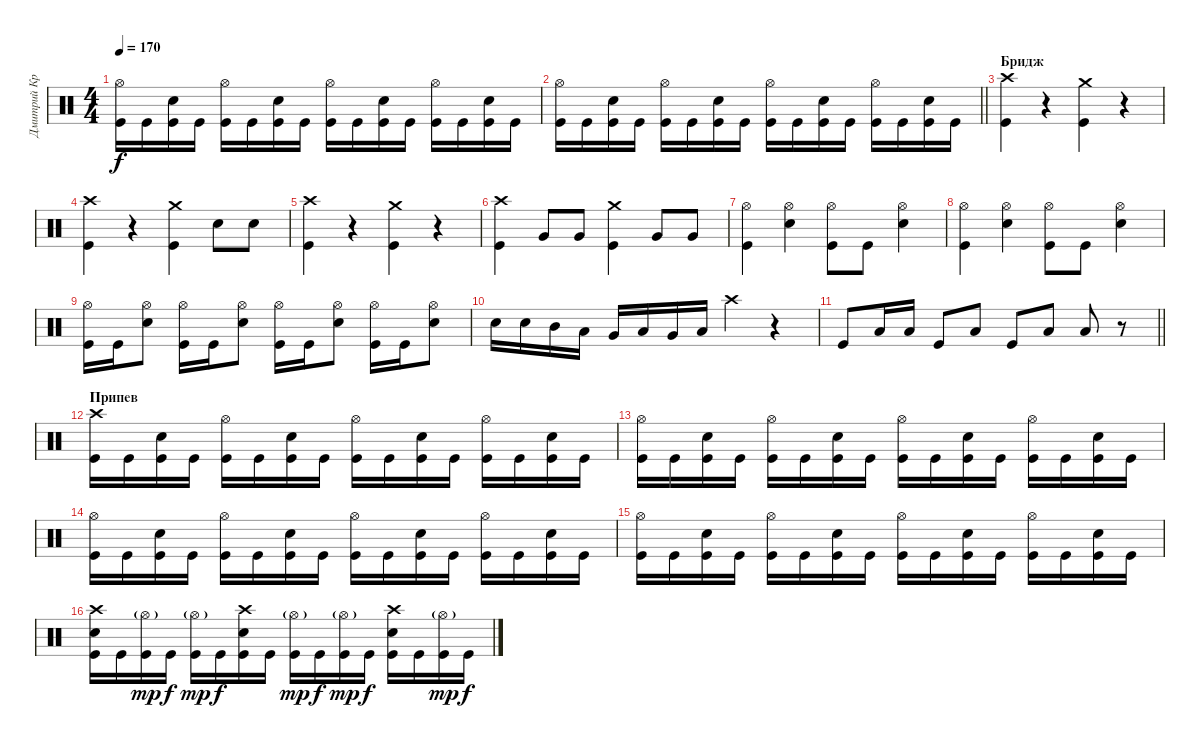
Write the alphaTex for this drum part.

\track ("Дмитрий Кривенков" "Дмитрий Кр") {instrument percussion}
\staff {score}
\articulation defaults
\ts (4 4)
\tempo 170
\clef neutral
\ks c
("Hi-Hat (open)" "Kick (hit)").16{dy f} "Kick (hit)".16 ("Snare (hit) 2" "Kick (hit)").16 "Kick (hit)".16 ("Hi-Hat (open)" "Kick (hit)").16 "Kick (hit)".16 ("Snare (hit) 2" "Kick (hit)").16 "Kick (hit)".16 ("Hi-Hat (open)" "Kick (hit)").16 "Kick (hit)".16 ("Snare (hit) 2" "Kick (hit)").16 "Kick (hit)".16 ("Hi-Hat (open)" "Kick (hit)").16 "Kick (hit)".16 ("Snare (hit) 2" "Kick (hit)").16 "Kick (hit)".16 |
\barLineRight lightlight
("Hi-Hat (open)" "Kick (hit)").16 "Kick (hit)".16 ("Snare (hit) 2" "Kick (hit)").16 "Kick (hit)".16 ("Hi-Hat (open)" "Kick (hit)").16 "Kick (hit)".16 ("Snare (hit) 2" "Kick (hit)").16 "Kick (hit)".16 ("Hi-Hat (open)" "Kick (hit)").16 "Kick (hit)".16 ("Snare (hit) 2" "Kick (hit)").16 "Kick (hit)".16 ("Hi-Hat (open)" "Kick (hit)").16 "Kick (hit)".16 ("Snare (hit) 2" "Kick (hit)").16 "Kick (hit)".16 |
\section ("" "Бридж")
("Crash high (hit)" "Kick (hit)").4 r.4 ("Crash medium (hit)" "Kick (hit)").4 r.4 |
("Crash high (hit)" "Kick (hit)").4 r.4 ("Crash medium (hit)" "Kick (hit)").4 "Snare (hit) 2".8 "Snare (hit) 2".8 |
("Crash high (hit)" "Kick (hit)").4 r.4 ("Crash medium (hit)" "Kick (hit)").4 r.4 |
("Crash high (hit)" "Kick (hit)").4 "Very Low Tom (hit)".8 "Very Low Tom (hit)".8 ("Crash medium (hit)" "Kick (hit)").4 "Very Low Tom (hit)".8 "Very Low Tom (hit)".8 |
("Hi-Hat (open)" "Kick (hit)").4 ("Hi-Hat (open)" "Snare (hit) 2").4 ("Hi-Hat (open)" "Kick (hit)").8 "Kick (hit)".8 ("Hi-Hat (open)" "Snare (hit) 2").4 |
("Hi-Hat (open)" "Kick (hit)").4 ("Hi-Hat (open)" "Snare (hit) 2").4 ("Hi-Hat (open)" "Kick (hit)").8 "Kick (hit)".8 ("Hi-Hat (open)" "Snare (hit) 2").4 |
("Hi-Hat (open)" "Kick (hit)").16 "Kick (hit)".16 ("Hi-Hat (open)" "Snare (hit) 2").8 ("Hi-Hat (open)" "Kick (hit)").16 "Kick (hit)".16 ("Hi-Hat (open)" "Snare (hit) 2").8 ("Hi-Hat (open)" "Kick (hit)").16 "Kick (hit)".16 ("Hi-Hat (open)" "Snare (hit) 2").8 ("Hi-Hat (open)" "Kick (hit)").16 "Kick (hit)".16 ("Hi-Hat (open)" "Snare (hit) 2").8 |
"Snare (hit) 2".16 "Snare (hit) 2".16 "Mid Tom (hit)".16 "Low Tom (hit)".16 "Very Low Tom (hit)".16 "Low Floor Tom (hit)".16 "Very Low Tom (hit)".16 "Low Tom (hit)".16 "Crash high (hit)".4 r.4 |
\barLineRight lightlight "Kick (hit)".8 "Low Tom (hit)".16 "Low Tom (hit)".16 "Kick (hit)".8 "Low Tom (hit)".8 "Kick (hit)".8 "Low Tom (hit)".8 "Low Tom (hit)".8
r.8 |
\section ("" "Припев")
("Crash high (hit)" "Kick (hit)").16 "Kick (hit)".16 ("Snare (hit) 2" "Kick (hit)").16 "Kick (hit)".16 ("Hi-Hat (open)" "Kick (hit)").16 "Kick (hit)".16 ("Snare (hit) 2" "Kick (hit)").16 "Kick (hit)".16 ("Hi-Hat (open)" "Kick (hit)").16 "Kick (hit)".16 ("Snare (hit) 2" "Kick (hit)").16 "Kick (hit)".16 ("Hi-Hat (open)" "Kick (hit)").16 "Kick (hit)".16 ("Snare (hit) 2" "Kick (hit)").16 "Kick (hit)".16 |
("Hi-Hat (open)" "Kick (hit)").16 "Kick (hit)".16 ("Snare (hit) 2" "Kick (hit)").16 "Kick (hit)".16 ("Hi-Hat (open)" "Kick (hit)").16 "Kick (hit)".16 ("Snare (hit) 2" "Kick (hit)").16 "Kick (hit)".16 ("Hi-Hat (open)" "Kick (hit)").16 "Kick (hit)".16 ("Snare (hit) 2" "Kick (hit)").16 "Kick (hit)".16 ("Hi-Hat (open)" "Kick (hit)").16 "Kick (hit)".16 ("Snare (hit) 2" "Kick (hit)").16 "Kick (hit)".16 |
("Hi-Hat (open)" "Kick (hit)").16 "Kick (hit)".16 ("Snare (hit) 2" "Kick (hit)").16 "Kick (hit)".16 ("Hi-Hat (open)" "Kick (hit)").16 "Kick (hit)".16 ("Snare (hit) 2" "Kick (hit)").16 "Kick (hit)".16 ("Hi-Hat (open)" "Kick (hit)").16 "Kick (hit)".16 ("Snare (hit) 2" "Kick (hit)").16 "Kick (hit)".16 ("Hi-Hat (open)" "Kick (hit)").16 "Kick (hit)".16 ("Snare (hit) 2" "Kick (hit)").16 "Kick (hit)".16 |
("Hi-Hat (open)" "Kick (hit)").16 "Kick (hit)".16 ("Snare (hit) 2" "Kick (hit)").16 "Kick (hit)".16 ("Hi-Hat (open)" "Kick (hit)").16 "Kick (hit)".16 ("Snare (hit) 2" "Kick (hit)").16 "Kick (hit)".16 ("Hi-Hat (open)" "Kick (hit)").16 "Kick (hit)".16 ("Snare (hit) 2" "Kick (hit)").16 "Kick (hit)".16 ("Hi-Hat (open)" "Kick (hit)").16 "Kick (hit)".16 ("Snare (hit) 2" "Kick (hit)").16 "Kick (hit)".16 |
("Crash high (hit)" "Snare (hit) 2" "Kick (hit)").16 "Kick (hit)".16 ("Hi-Hat (open)"{g} "Kick (hit)").16{dy mp} "Kick (hit)".16{dy f} ("Hi-Hat (open)"{g} "Kick (hit)").16{dy mp} "Kick (hit)".16{dy f} ("Crash high (hit)" "Snare (hit) 2" "Kick (hit)").16 "Kick (hit)".16 ("Hi-Hat (open)"{g} "Kick (hit)").16{dy mp} "Kick (hit)".16{dy f} ("Hi-Hat (open)"{g} "Kick (hit)").16{dy mp} "Kick (hit)".16{dy f} ("Crash high (hit)" "Snare (hit) 2" "Kick (hit)").16 "Kick (hit)".16 ("Hi-Hat (open)"{g} "Kick (hit)").16{dy mp} "Kick (hit)".16{dy f}
